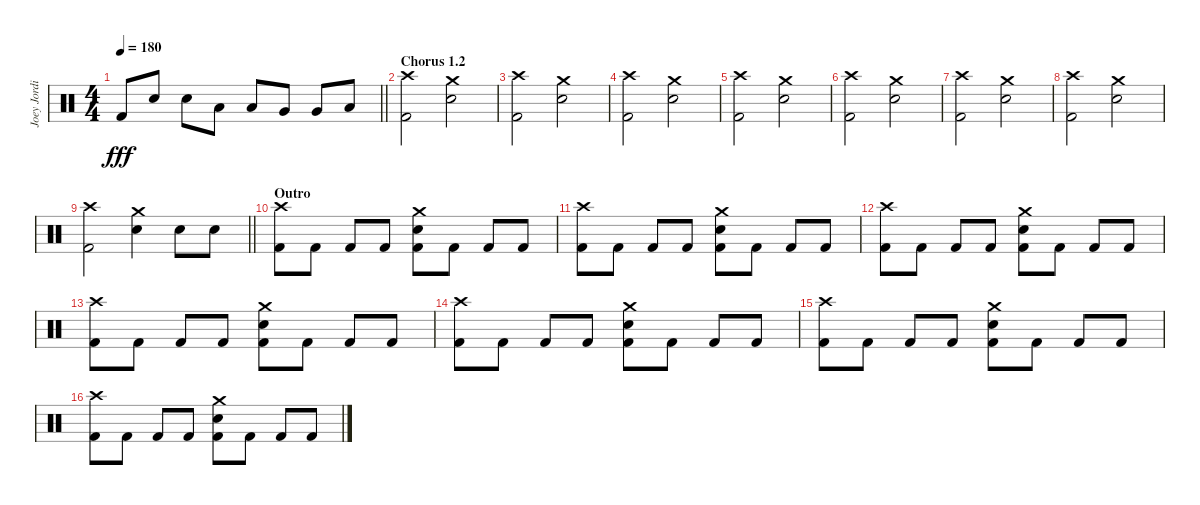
\track ("Joey Jordison" "Joey Jordi") {instrument percussion}
\staff {score}
\articulation defaults
\ts (4 4)
\tempo 180
\clef neutral
\barLineRight lightlight
\ks c "Kick (hit) 2".8{dy fff} "Electric Snare (hit)".8 "Electric Snare (hit)".8 "Low Tom (hit)".8 "Low Tom (hit)".8 "Very Low Tom (hit)".8 "Very Low Tom (hit)".8 "Low Floor Tom (hit)".8
|
\section ("" "Chorus 1.2")
("Crash high (hit)" "Kick (hit) 2").2 ("Crash medium (hit)" "Electric Snare (hit)").2 |
("Crash high (hit)" "Kick (hit) 2").2 ("Crash medium (hit)" "Electric Snare (hit)").2 |
("Crash high (hit)" "Kick (hit) 2").2 ("Crash medium (hit)" "Electric Snare (hit)").2 |
("Crash high (hit)" "Kick (hit) 2").2 ("Crash medium (hit)" "Electric Snare (hit)").2 |
("Crash high (hit)" "Kick (hit) 2").2 ("Crash medium (hit)" "Electric Snare (hit)").2 |
("Crash high (hit)" "Kick (hit) 2").2 ("Crash medium (hit)" "Electric Snare (hit)").2 |
("Crash high (hit)" "Kick (hit) 2").2 ("Crash medium (hit)" "Electric Snare (hit)").2 |
\barLineRight lightlight
("Crash high (hit)" "Kick (hit) 2").2 ("Crash medium (hit)" "Electric Snare (hit)").4 "Electric Snare (hit)".8 "Electric Snare (hit)".8 |
\section ("" "Outro")
("Crash high (hit)" "Kick (hit) 2").8 "Kick (hit) 2".8 "Kick (hit) 2".8 "Kick (hit) 2".8 ("Crash medium (hit)" "Electric Snare (hit)" "Kick (hit) 2").8 "Kick (hit) 2".8 "Kick (hit) 2".8 "Kick (hit) 2".8 |
("Crash high (hit)" "Kick (hit) 2").8 "Kick (hit) 2".8 "Kick (hit) 2".8 "Kick (hit) 2".8 ("Crash medium (hit)" "Electric Snare (hit)" "Kick (hit) 2").8 "Kick (hit) 2".8 "Kick (hit) 2".8 "Kick (hit) 2".8 |
("Crash high (hit)" "Kick (hit) 2").8 "Kick (hit) 2".8 "Kick (hit) 2".8 "Kick (hit) 2".8 ("Crash medium (hit)" "Electric Snare (hit)" "Kick (hit) 2").8 "Kick (hit) 2".8 "Kick (hit) 2".8 "Kick (hit) 2".8 |
("Crash high (hit)" "Kick (hit) 2").8 "Kick (hit) 2".8 "Kick (hit) 2".8 "Kick (hit) 2".8 ("Crash medium (hit)" "Electric Snare (hit)" "Kick (hit) 2").8 "Kick (hit) 2".8 "Kick (hit) 2".8 "Kick (hit) 2".8 |
("Crash high (hit)" "Kick (hit) 2").8 "Kick (hit) 2".8 "Kick (hit) 2".8 "Kick (hit) 2".8 ("Crash medium (hit)" "Electric Snare (hit)" "Kick (hit) 2").8 "Kick (hit) 2".8 "Kick (hit) 2".8 "Kick (hit) 2".8 |
("Crash high (hit)" "Kick (hit) 2").8 "Kick (hit) 2".8 "Kick (hit) 2".8 "Kick (hit) 2".8 ("Crash medium (hit)" "Electric Snare (hit)" "Kick (hit) 2").8 "Kick (hit) 2".8 "Kick (hit) 2".8 "Kick (hit) 2".8 |
("Crash high (hit)" "Kick (hit) 2").8 "Kick (hit) 2".8 "Kick (hit) 2".8 "Kick (hit) 2".8 ("Crash medium (hit)" "Electric Snare (hit)" "Kick (hit) 2").8 "Kick (hit) 2".8 "Kick (hit) 2".8 "Kick (hit) 2".8
